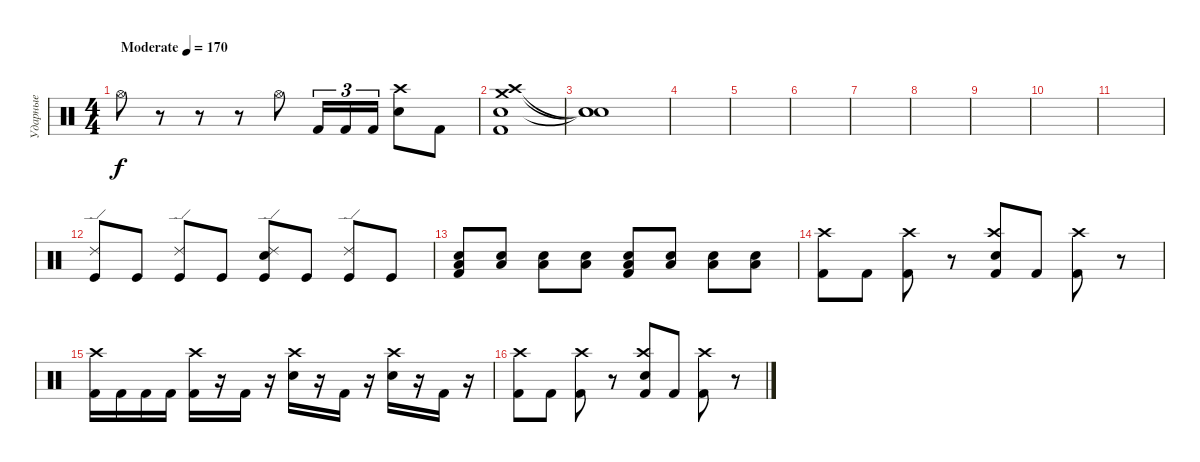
\track ("Ударные" "Ударные") {instrument percussion}
\staff {score}
\articulation defaults
\ts (4 4)
\tempo (170 "Moderate")
\clef neutral
\ks c "Hi-Hat (open)".8{dy f}
r.8 r.8 r.8 "Hi-Hat (open)".8 "Kick (hit) 2".16{tu (3 2)} "Kick (hit) 2".16{tu (3 2)} "Kick (hit) 2".16{tu (3 2)} ("Crash high (hit)" "Electric Snare (hit)").8 "Kick (hit) 2".8 |
("Crash high (hit)" "Crash medium (hit)" "Snare (hit)" "Kick (hit) 2").1 |
("Snare (hit)"{t} "Snare (hit)"{t} "Snare (hit)"{t}).1 |
|
|
|
|
|
|
|
|
("Ride (edge) 2" "Kick (hit)").8 "Kick (hit)".8 ("Ride (edge) 2" "Kick (hit)").8 "Kick (hit)".8 ("Ride (edge) 2" "Electric Snare (hit)" "Kick (hit)").8 "Kick (hit)".8 ("Ride (edge) 2" "Kick (hit)").8 "Kick (hit)".8 |
("Kick (hit) 2" "Low Floor Tom (hit)" "Snare (hit) 2").8 ("Low Floor Tom (hit)" "Snare (hit) 2").8 ("Low Floor Tom (hit)" "Snare (hit) 2").8 ("Low Floor Tom (hit)" "Snare (hit) 2").8 ("Kick (hit) 2" "Low Floor Tom (hit)" "Snare (hit) 2").8 ("Low Floor Tom (hit)" "Snare (hit) 2").8 ("Low Floor Tom (hit)" "Snare (hit) 2").8 ("Low Floor Tom (hit)" "Snare (hit) 2").8 |
("Crash high (hit)" "Kick (hit) 2").8 "Kick (hit) 2".8 ("Crash high (hit)" "Kick (hit) 2").8 r.8 ("Crash high (hit)" "Snare (hit) 2" "Kick (hit) 2").8 "Kick (hit) 2".8 ("Crash high (hit)" "Kick (hit) 2").8 r.8 |
("Crash high (hit)" "Kick (hit) 2").16 "Kick (hit) 2".16 "Kick (hit) 2".16 "Kick (hit) 2".16 ("Crash high (hit)" "Kick (hit) 2").16 r.16 "Kick (hit) 2".16 r.16 ("Crash high (hit)" "Snare (hit) 2").16 r.16 "Kick (hit) 2".16 r.16 ("Crash high (hit)" "Snare (hit) 2").16 r.16 "Kick (hit) 2".16 r.16 |
("Crash high (hit)" "Kick (hit) 2").8 "Kick (hit) 2".8 ("Crash high (hit)" "Kick (hit) 2").8 r.8 ("Crash high (hit)" "Snare (hit) 2" "Kick (hit) 2").8 "Kick (hit) 2".8 ("Crash high (hit)" "Kick (hit) 2").8 r.8
